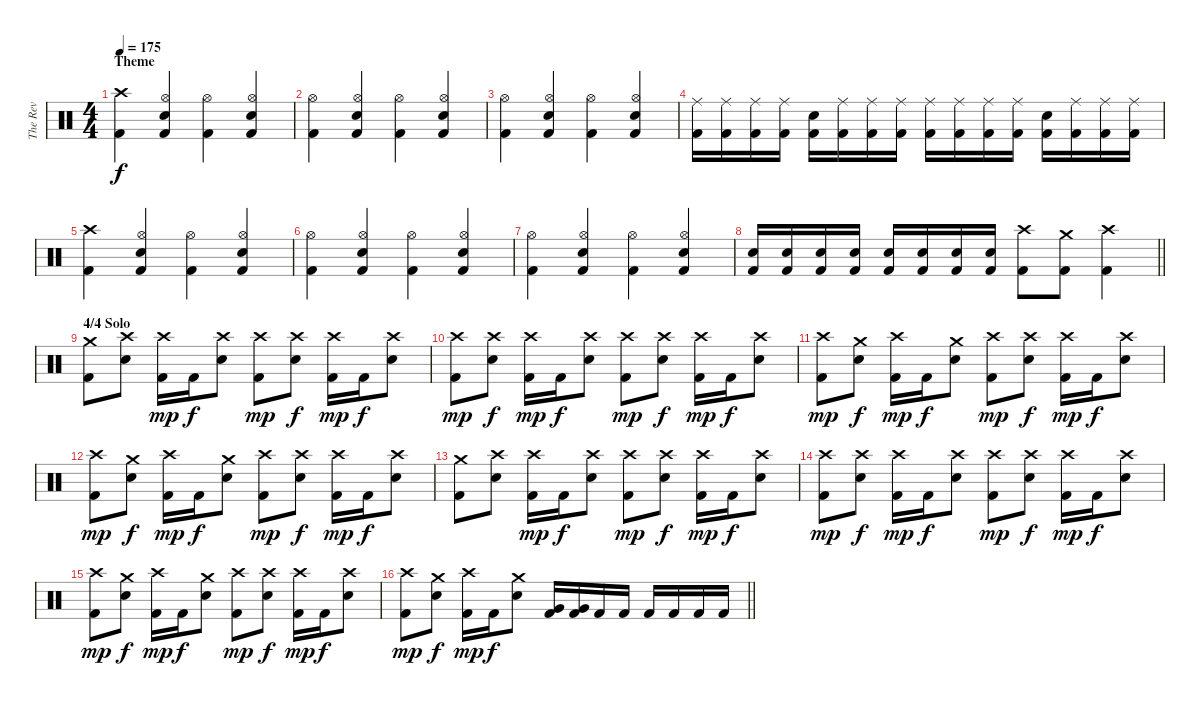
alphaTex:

\track ("The Rev" "The Rev") {instrument percussion}
\staff {score}
\articulation defaults
\ts (4 4)
\section ("" "Theme")
\tempo 175
\clef neutral
\ks c
("Crash high (hit)" "Kick (hit) 2").4{dy f} ("Hi-Hat (open)" "Snare (hit) 2" "Kick (hit) 2").4 ("Hi-Hat (open)" "Kick (hit) 2").4 ("Hi-Hat (open)" "Snare (hit) 2" "Kick (hit) 2").4 |
("Hi-Hat (open)" "Kick (hit) 2").4 ("Hi-Hat (open)" "Snare (hit) 2" "Kick (hit) 2").4 ("Hi-Hat (open)" "Kick (hit) 2").4 ("Hi-Hat (open)" "Snare (hit) 2" "Kick (hit) 2").4 |
("Hi-Hat (open)" "Kick (hit) 2").4 ("Hi-Hat (open)" "Snare (hit) 2" "Kick (hit) 2").4 ("Hi-Hat (open)" "Kick (hit) 2").4 ("Hi-Hat (open)" "Snare (hit) 2" "Kick (hit) 2").4 |
("Ride (middle)" "Kick (hit) 2").16 ("Ride (middle)" "Kick (hit) 2").16 ("Ride (middle)" "Kick (hit) 2").16 ("Ride (middle)" "Kick (hit) 2").16 ("Snare (hit) 2" "Kick (hit) 2").16 ("Ride (middle)" "Kick (hit) 2").16 ("Ride (middle)" "Kick (hit) 2").16 ("Ride (middle)" "Kick (hit) 2").16 ("Ride (middle)" "Kick (hit) 2").16 ("Ride (middle)" "Kick (hit) 2").16 ("Ride (middle)" "Kick (hit) 2").16 ("Ride (middle)" "Kick (hit) 2").16 ("Snare (hit) 2" "Kick (hit) 2").16 ("Ride (middle)" "Kick (hit) 2").16 ("Ride (middle)" "Kick (hit) 2").16 ("Ride (middle)" "Kick (hit) 2").16 |
("Crash high (hit)" "Kick (hit) 2").4 ("Hi-Hat (open)" "Snare (hit) 2" "Kick (hit) 2").4 ("Hi-Hat (open)" "Kick (hit) 2").4 ("Hi-Hat (open)" "Snare (hit) 2" "Kick (hit) 2").4 |
("Hi-Hat (open)" "Kick (hit) 2").4 ("Hi-Hat (open)" "Snare (hit) 2" "Kick (hit) 2").4 ("Hi-Hat (open)" "Kick (hit) 2").4 ("Hi-Hat (open)" "Snare (hit) 2" "Kick (hit) 2").4 |
("Hi-Hat (open)" "Kick (hit) 2").4 ("Hi-Hat (open)" "Snare (hit) 2" "Kick (hit) 2").4 ("Hi-Hat (open)" "Kick (hit) 2").4 ("Hi-Hat (open)" "Snare (hit) 2" "Kick (hit) 2").4 |
\barLineRight lightlight
("Snare (hit) 2" "Kick (hit) 2").16 ("Snare (hit) 2" "Kick (hit) 2").16 ("Snare (hit) 2" "Kick (hit) 2").16 ("Snare (hit) 2" "Kick (hit) 2").16 ("Snare (hit) 2" "Kick (hit) 2").16 ("Snare (hit) 2" "Kick (hit) 2").16 ("Snare (hit) 2" "Kick (hit) 2").16 ("Snare (hit) 2" "Kick (hit) 2").16 ("Crash high (hit)" "Kick (hit) 2").8 ("Crash medium (hit)" "Kick (hit) 2").8 ("Crash high (hit)" "Kick (hit) 2").4 |
\section ("" "4/4 Solo")
("Crash medium (hit)" "Kick (hit) 2").8 ("Crash high (hit)" "Snare (hit) 2").8 ("Crash high (hit)" "Kick (hit) 2").16{dy mp} "Kick (hit) 2".16{dy f} ("Crash high (hit)" "Snare (hit) 2").8 ("Crash high (hit)" "Kick (hit) 2").8{dy mp} ("Crash high (hit)" "Snare (hit) 2").8{dy f} ("Crash high (hit)" "Kick (hit) 2").16{dy mp} "Kick (hit) 2".16{dy f} ("Crash high (hit)" "Snare (hit) 2").8 |
("Crash high (hit)" "Kick (hit) 2").8{dy mp} ("Crash high (hit)" "Snare (hit) 2").8{dy f} ("Crash high (hit)" "Kick (hit) 2").16{dy mp} "Kick (hit) 2".16{dy f} ("Crash high (hit)" "Snare (hit) 2").8 ("Crash high (hit)" "Kick (hit) 2").8{dy mp} ("Crash high (hit)" "Snare (hit) 2").8{dy f} ("Crash high (hit)" "Kick (hit) 2").16{dy mp} "Kick (hit) 2".16{dy f} ("Crash high (hit)" "Snare (hit) 2").8 |
("Crash high (hit)" "Kick (hit) 2").8{dy mp} ("Crash medium (hit)" "Snare (hit) 2").8{dy f} ("Crash high (hit)" "Kick (hit) 2").16{dy mp} "Kick (hit) 2".16{dy f} ("Crash medium (hit)" "Snare (hit) 2").8 ("Crash high (hit)" "Kick (hit) 2").8{dy mp} ("Crash high (hit)" "Snare (hit) 2").8{dy f} ("Crash high (hit)" "Kick (hit) 2").16{dy mp} "Kick (hit) 2".16{dy f} ("Crash high (hit)" "Snare (hit) 2").8 |
("Crash high (hit)" "Kick (hit) 2").8{dy mp} ("Crash medium (hit)" "Snare (hit) 2").8{dy f} ("Crash high (hit)" "Kick (hit) 2").16{dy mp} "Kick (hit) 2".16{dy f} ("Crash medium (hit)" "Snare (hit) 2").8 ("Crash high (hit)" "Kick (hit) 2").8{dy mp} ("Crash high (hit)" "Snare (hit) 2").8{dy f} ("Crash high (hit)" "Kick (hit) 2").16{dy mp} "Kick (hit) 2".16{dy f} ("Crash high (hit)" "Snare (hit) 2").8 |
("Crash medium (hit)" "Kick (hit) 2").8 ("Crash high (hit)" "Snare (hit) 2").8 ("Crash high (hit)" "Kick (hit) 2").16{dy mp} "Kick (hit) 2".16{dy f} ("Crash high (hit)" "Snare (hit) 2").8 ("Crash high (hit)" "Kick (hit) 2").8{dy mp} ("Crash high (hit)" "Snare (hit) 2").8{dy f} ("Crash high (hit)" "Kick (hit) 2").16{dy mp} "Kick (hit) 2".16{dy f} ("Crash high (hit)" "Snare (hit) 2").8 |
("Crash high (hit)" "Kick (hit) 2").8{dy mp} ("Crash high (hit)" "Snare (hit) 2").8{dy f} ("Crash high (hit)" "Kick (hit) 2").16{dy mp} "Kick (hit) 2".16{dy f} ("Crash high (hit)" "Snare (hit) 2").8 ("Crash high (hit)" "Kick (hit) 2").8{dy mp} ("Crash high (hit)" "Snare (hit) 2").8{dy f} ("Crash high (hit)" "Kick (hit) 2").16{dy mp} "Kick (hit) 2".16{dy f} ("Crash high (hit)" "Snare (hit) 2").8 |
("Crash high (hit)" "Kick (hit) 2").8{dy mp} ("Crash medium (hit)" "Snare (hit) 2").8{dy f} ("Crash high (hit)" "Kick (hit) 2").16{dy mp} "Kick (hit) 2".16{dy f} ("Crash medium (hit)" "Snare (hit) 2").8 ("Crash high (hit)" "Kick (hit) 2").8{dy mp} ("Crash high (hit)" "Snare (hit) 2").8{dy f} ("Crash high (hit)" "Kick (hit) 2").16{dy mp} "Kick (hit) 2".16{dy f} ("Crash high (hit)" "Snare (hit) 2").8 |
\barLineRight lightlight
("Crash high (hit)" "Kick (hit) 2").8{dy mp} ("Crash medium (hit)" "Snare (hit) 2").8{dy f} ("Crash high (hit)" "Kick (hit) 2").16{dy mp} "Kick (hit) 2".16{dy f} ("Crash medium (hit)" "Snare (hit) 2").8 ("Very Low Tom (hit)" "Kick (hit) 2").16 ("Very Low Tom (hit)" "Kick (hit) 2").16 "Kick (hit) 2".16 "Kick (hit) 2".16 "Kick (hit) 2".16 "Kick (hit) 2".16 "Kick (hit) 2".16 "Kick (hit) 2".16
